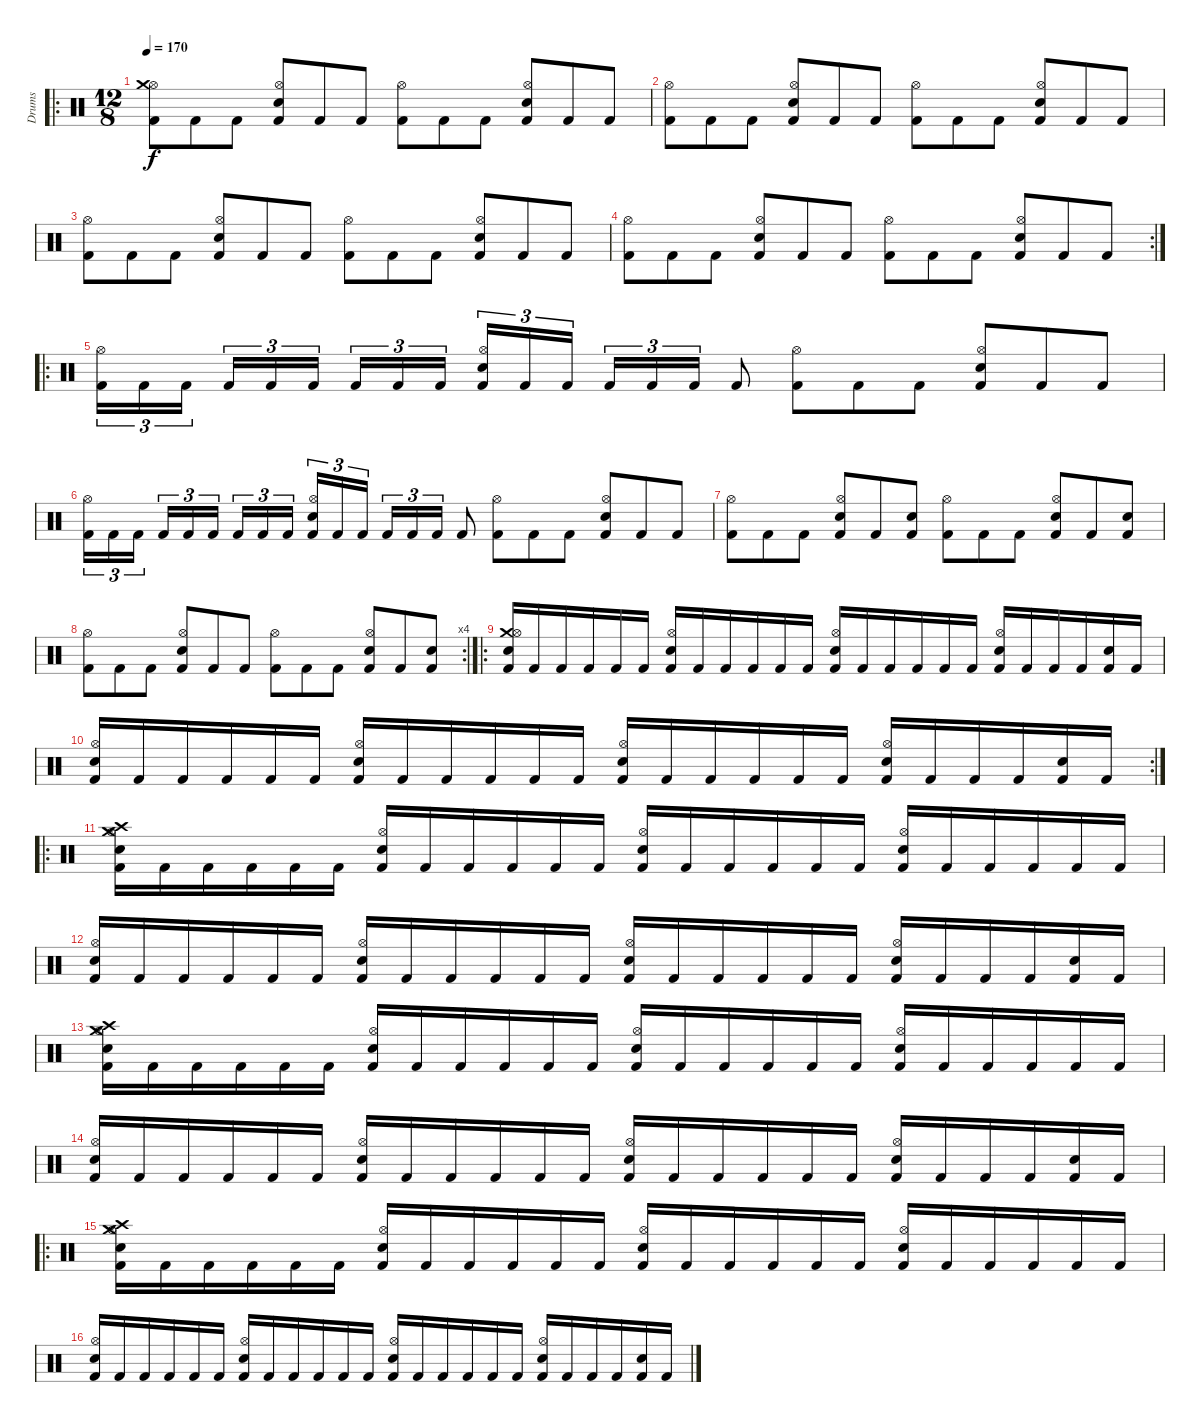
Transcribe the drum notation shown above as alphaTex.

\track ("Drums" "Drums") {instrument percussion}
\staff {score}
\articulation defaults
\ro
\ts (12 8)
\tempo 170
\clef neutral
\ks c
("Kick (hit) 2" "Hi-Hat (open)" "Crash medium (hit)").8{dy f} "Kick (hit) 2".8 "Kick (hit) 2".8 ("Kick (hit) 2" "Electric Snare (hit)" "Hi-Hat (open)").8 "Kick (hit) 2".8 "Kick (hit) 2".8 ("Kick (hit) 2" "Hi-Hat (open)").8 "Kick (hit) 2".8 "Kick (hit) 2".8 ("Kick (hit) 2" "Electric Snare (hit)" "Hi-Hat (open)").8 "Kick (hit) 2".8 "Kick (hit) 2".8 |
("Kick (hit) 2" "Hi-Hat (open)").8 "Kick (hit) 2".8 "Kick (hit) 2".8 ("Kick (hit) 2" "Electric Snare (hit)" "Hi-Hat (open)").8 "Kick (hit) 2".8 "Kick (hit) 2".8 ("Kick (hit) 2" "Hi-Hat (open)").8 "Kick (hit) 2".8 "Kick (hit) 2".8 ("Kick (hit) 2" "Electric Snare (hit)" "Hi-Hat (open)").8 "Kick (hit) 2".8 "Kick (hit) 2".8 |
("Kick (hit) 2" "Hi-Hat (open)").8 "Kick (hit) 2".8 "Kick (hit) 2".8 ("Kick (hit) 2" "Electric Snare (hit)" "Hi-Hat (open)").8 "Kick (hit) 2".8 "Kick (hit) 2".8 ("Kick (hit) 2" "Hi-Hat (open)").8 "Kick (hit) 2".8 "Kick (hit) 2".8 ("Kick (hit) 2" "Electric Snare (hit)" "Hi-Hat (open)").8 "Kick (hit) 2".8 "Kick (hit) 2".8 |
\rc 2
("Kick (hit) 2" "Hi-Hat (open)").8 "Kick (hit) 2".8 "Kick (hit) 2".8 ("Kick (hit) 2" "Electric Snare (hit)" "Hi-Hat (open)").8 "Kick (hit) 2".8 "Kick (hit) 2".8 ("Kick (hit) 2" "Hi-Hat (open)").8 "Kick (hit) 2".8 "Kick (hit) 2".8 ("Kick (hit) 2" "Electric Snare (hit)" "Hi-Hat (open)").8 "Kick (hit) 2".8 "Kick (hit) 2".8 |
\ro
("Kick (hit) 2" "Hi-Hat (open)").16{tu (3 2)} "Kick (hit) 2".16{tu (3 2)} "Kick (hit) 2".16{tu (3 2)} "Kick (hit) 2".16{tu (3 2)} "Kick (hit) 2".16{tu (3 2)} "Kick (hit) 2".16{tu (3 2)} "Kick (hit) 2".16{tu (3 2)} "Kick (hit) 2".16{tu (3 2)} "Kick (hit) 2".16{tu (3 2)} ("Kick (hit) 2" "Electric Snare (hit)" "Hi-Hat (open)").16{tu (3 2)} "Kick (hit) 2".16{tu (3 2)} "Kick (hit) 2".16{tu (3 2)} "Kick (hit) 2".16{tu (3 2)} "Kick (hit) 2".16{tu (3 2)} "Kick (hit) 2".16{tu (3 2)} "Kick (hit) 2".8 ("Kick (hit) 2" "Hi-Hat (open)").8 "Kick (hit) 2".8 "Kick (hit) 2".8 ("Kick (hit) 2" "Electric Snare (hit)" "Hi-Hat (open)").8 "Kick (hit) 2".8 "Kick (hit) 2".8 |
("Kick (hit) 2" "Hi-Hat (open)").16{tu (3 2)} "Kick (hit) 2".16{tu (3 2)} "Kick (hit) 2".16{tu (3 2)} "Kick (hit) 2".16{tu (3 2)} "Kick (hit) 2".16{tu (3 2)} "Kick (hit) 2".16{tu (3 2)} "Kick (hit) 2".16{tu (3 2)} "Kick (hit) 2".16{tu (3 2)} "Kick (hit) 2".16{tu (3 2)} ("Kick (hit) 2" "Electric Snare (hit)" "Hi-Hat (open)").16{tu (3 2)} "Kick (hit) 2".16{tu (3 2)} "Kick (hit) 2".16{tu (3 2)} "Kick (hit) 2".16{tu (3 2)} "Kick (hit) 2".16{tu (3 2)} "Kick (hit) 2".16{tu (3 2)} "Kick (hit) 2".8 ("Kick (hit) 2" "Hi-Hat (open)").8 "Kick (hit) 2".8 "Kick (hit) 2".8 ("Kick (hit) 2" "Hi-Hat (open)" "Electric Snare (hit)").8 "Kick (hit) 2".8 "Kick (hit) 2".8 |
("Kick (hit) 2" "Hi-Hat (open)").8 "Kick (hit) 2".8 "Kick (hit) 2".8 ("Kick (hit) 2" "Electric Snare (hit)" "Hi-Hat (open)").8 "Kick (hit) 2".8 ("Kick (hit) 2" "Electric Snare (hit)").8 ("Kick (hit) 2" "Hi-Hat (open)").8 "Kick (hit) 2".8 "Kick (hit) 2".8 ("Kick (hit) 2" "Electric Snare (hit)" "Hi-Hat (open)").8 "Kick (hit) 2".8 ("Kick (hit) 2" "Electric Snare (hit)").8 |
\rc 4
("Kick (hit) 2" "Hi-Hat (open)").8 "Kick (hit) 2".8 "Kick (hit) 2".8 ("Kick (hit) 2" "Electric Snare (hit)" "Hi-Hat (open)").8 "Kick (hit) 2".8 "Kick (hit) 2".8 ("Kick (hit) 2" "Hi-Hat (open)").8 "Kick (hit) 2".8 "Kick (hit) 2".8 ("Kick (hit) 2" "Electric Snare (hit)" "Hi-Hat (open)").8 "Kick (hit) 2".8 ("Kick (hit) 2" "Electric Snare (hit)").8 |
\ro
("Kick (hit) 2" "Crash medium (hit)" "Electric Snare (hit)" "Hi-Hat (open)").16 "Kick (hit) 2".16 "Kick (hit) 2".16 "Kick (hit) 2".16 "Kick (hit) 2".16 "Kick (hit) 2".16 ("Kick (hit) 2" "Electric Snare (hit)" "Hi-Hat (open)").16 "Kick (hit) 2".16 "Kick (hit) 2".16 "Kick (hit) 2".16 "Kick (hit) 2".16 "Kick (hit) 2".16 ("Kick (hit) 2" "Electric Snare (hit)" "Hi-Hat (open)").16 "Kick (hit) 2".16 "Kick (hit) 2".16 "Kick (hit) 2".16 "Kick (hit) 2".16 "Kick (hit) 2".16 ("Kick (hit) 2" "Electric Snare (hit)" "Hi-Hat (open)").16 "Kick (hit) 2".16 "Kick (hit) 2".16 "Kick (hit) 2".16 ("Kick (hit) 2" "Electric Snare (hit)").16 "Kick (hit) 2".16 |
\rc 2
("Kick (hit) 2" "Electric Snare (hit)" "Hi-Hat (open)").16 "Kick (hit) 2".16 "Kick (hit) 2".16 "Kick (hit) 2".16 "Kick (hit) 2".16 "Kick (hit) 2".16 ("Kick (hit) 2" "Electric Snare (hit)" "Hi-Hat (open)").16 "Kick (hit) 2".16 "Kick (hit) 2".16 "Kick (hit) 2".16 "Kick (hit) 2".16 "Kick (hit) 2".16 ("Kick (hit) 2" "Electric Snare (hit)" "Hi-Hat (open)").16 "Kick (hit) 2".16 "Kick (hit) 2".16 "Kick (hit) 2".16 "Kick (hit) 2".16 "Kick (hit) 2".16 ("Kick (hit) 2" "Electric Snare (hit)" "Hi-Hat (open)").16 "Kick (hit) 2".16 "Kick (hit) 2".16 "Kick (hit) 2".16 ("Kick (hit) 2" "Electric Snare (hit)").16 "Kick (hit) 2".16 |
\ro
("Kick (hit) 2" "Electric Snare (hit)" "Crash medium (hit)" "Hi-Hat (open)" "Crash high (hit)").16 "Kick (hit) 2".16 "Kick (hit) 2".16 "Kick (hit) 2".16 "Kick (hit) 2".16 "Kick (hit) 2".16 ("Kick (hit) 2" "Electric Snare (hit)" "Hi-Hat (open)").16 "Kick (hit) 2".16 "Kick (hit) 2".16 "Kick (hit) 2".16 "Kick (hit) 2".16 "Kick (hit) 2".16 ("Kick (hit) 2" "Electric Snare (hit)" "Hi-Hat (open)").16 "Kick (hit) 2".16 "Kick (hit) 2".16 "Kick (hit) 2".16 "Kick (hit) 2".16 "Kick (hit) 2".16 ("Kick (hit) 2" "Electric Snare (hit)" "Hi-Hat (open)").16 "Kick (hit) 2".16 "Kick (hit) 2".16 "Kick (hit) 2".16 "Kick (hit) 2".16 "Kick (hit) 2".16 |
("Kick (hit) 2" "Electric Snare (hit)" "Hi-Hat (open)").16 "Kick (hit) 2".16 "Kick (hit) 2".16 "Kick (hit) 2".16 "Kick (hit) 2".16 "Kick (hit) 2".16 ("Kick (hit) 2" "Electric Snare (hit)" "Hi-Hat (open)").16 "Kick (hit) 2".16 "Kick (hit) 2".16 "Kick (hit) 2".16 "Kick (hit) 2".16 "Kick (hit) 2".16 ("Kick (hit) 2" "Electric Snare (hit)" "Hi-Hat (open)").16 "Kick (hit) 2".16 "Kick (hit) 2".16 "Kick (hit) 2".16 "Kick (hit) 2".16 "Kick (hit) 2".16 ("Kick (hit) 2" "Electric Snare (hit)" "Hi-Hat (open)").16 "Kick (hit) 2".16 "Kick (hit) 2".16 "Kick (hit) 2".16 ("Kick (hit) 2" "Electric Snare (hit)").16 "Kick (hit) 2".16 |
("Kick (hit) 2" "Electric Snare (hit)" "Crash medium (hit)" "Hi-Hat (open)" "Crash high (hit)").16 "Kick (hit) 2".16 "Kick (hit) 2".16 "Kick (hit) 2".16 "Kick (hit) 2".16 "Kick (hit) 2".16 ("Kick (hit) 2" "Electric Snare (hit)" "Hi-Hat (open)").16 "Kick (hit) 2".16 "Kick (hit) 2".16 "Kick (hit) 2".16 "Kick (hit) 2".16 "Kick (hit) 2".16 ("Kick (hit) 2" "Electric Snare (hit)" "Hi-Hat (open)").16 "Kick (hit) 2".16 "Kick (hit) 2".16 "Kick (hit) 2".16 "Kick (hit) 2".16 "Kick (hit) 2".16 ("Kick (hit) 2" "Electric Snare (hit)" "Hi-Hat (open)").16 "Kick (hit) 2".16 "Kick (hit) 2".16 "Kick (hit) 2".16 "Kick (hit) 2".16 "Kick (hit) 2".16 |
("Kick (hit) 2" "Electric Snare (hit)" "Hi-Hat (open)").16 "Kick (hit) 2".16 "Kick (hit) 2".16 "Kick (hit) 2".16 "Kick (hit) 2".16 "Kick (hit) 2".16 ("Kick (hit) 2" "Electric Snare (hit)" "Hi-Hat (open)").16 "Kick (hit) 2".16 "Kick (hit) 2".16 "Kick (hit) 2".16 "Kick (hit) 2".16 "Kick (hit) 2".16 ("Kick (hit) 2" "Electric Snare (hit)" "Hi-Hat (open)").16 "Kick (hit) 2".16 "Kick (hit) 2".16 "Kick (hit) 2".16 "Kick (hit) 2".16 "Kick (hit) 2".16 ("Kick (hit) 2" "Electric Snare (hit)" "Hi-Hat (open)").16 "Kick (hit) 2".16 "Kick (hit) 2".16 "Kick (hit) 2".16 ("Kick (hit) 2" "Electric Snare (hit)").16 "Kick (hit) 2".16 |
\ro
("Kick (hit) 2" "Electric Snare (hit)" "Crash medium (hit)" "Hi-Hat (open)" "Crash high (hit)").16 "Kick (hit) 2".16 "Kick (hit) 2".16 "Kick (hit) 2".16 "Kick (hit) 2".16 "Kick (hit) 2".16 ("Kick (hit) 2" "Electric Snare (hit)" "Hi-Hat (open)").16 "Kick (hit) 2".16 "Kick (hit) 2".16 "Kick (hit) 2".16 "Kick (hit) 2".16 "Kick (hit) 2".16 ("Kick (hit) 2" "Electric Snare (hit)" "Hi-Hat (open)").16 "Kick (hit) 2".16 "Kick (hit) 2".16 "Kick (hit) 2".16 "Kick (hit) 2".16 "Kick (hit) 2".16 ("Kick (hit) 2" "Electric Snare (hit)" "Hi-Hat (open)").16 "Kick (hit) 2".16 "Kick (hit) 2".16 "Kick (hit) 2".16 "Kick (hit) 2".16 "Kick (hit) 2".16 |
("Kick (hit) 2" "Electric Snare (hit)" "Hi-Hat (open)").16 "Kick (hit) 2".16 "Kick (hit) 2".16 "Kick (hit) 2".16 "Kick (hit) 2".16 "Kick (hit) 2".16 ("Kick (hit) 2" "Electric Snare (hit)" "Hi-Hat (open)").16 "Kick (hit) 2".16 "Kick (hit) 2".16 "Kick (hit) 2".16 "Kick (hit) 2".16 "Kick (hit) 2".16 ("Kick (hit) 2" "Electric Snare (hit)" "Hi-Hat (open)").16 "Kick (hit) 2".16 "Kick (hit) 2".16 "Kick (hit) 2".16 "Kick (hit) 2".16 "Kick (hit) 2".16 ("Kick (hit) 2" "Electric Snare (hit)" "Hi-Hat (open)").16 "Kick (hit) 2".16 "Kick (hit) 2".16 "Kick (hit) 2".16 ("Kick (hit) 2" "Electric Snare (hit)").16 "Kick (hit) 2".16
